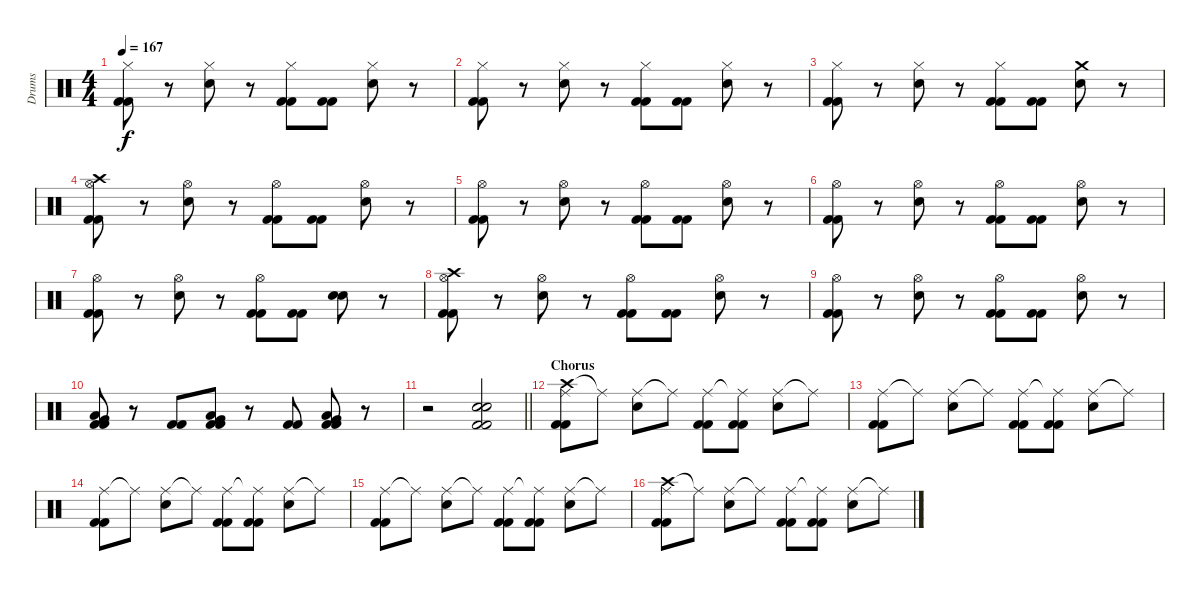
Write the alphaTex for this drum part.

\track ("Drums" "Drums") {instrument percussion}
\staff {score}
\articulation defaults
\ts (4 4)
\tempo 167
\clef neutral
\ks c
("Hi-Hat (closed)" "Kick (hit) 2" "Kick (hit) 2").8{dy f} r.8 ("Hi-Hat (closed)" "Electric Snare (hit)").8 r.8 ("Hi-Hat (closed)" "Kick (hit) 2" "Kick (hit) 2").8 ("Kick (hit) 2" "Kick (hit) 2").8 ("Hi-Hat (closed)" "Electric Snare (hit)").8 r.8 |
("Hi-Hat (closed)" "Kick (hit) 2" "Kick (hit) 2").8 r.8 ("Hi-Hat (closed)" "Electric Snare (hit)").8 r.8 ("Hi-Hat (closed)" "Kick (hit) 2" "Kick (hit) 2").8 ("Kick (hit) 2" "Kick (hit) 2").8 ("Hi-Hat (closed)" "Electric Snare (hit)").8 r.8 |
("Hi-Hat (closed)" "Kick (hit) 2" "Kick (hit) 2").8 r.8 ("Hi-Hat (closed)" "Electric Snare (hit)").8 r.8 ("Hi-Hat (closed)" "Kick (hit) 2" "Kick (hit) 2").8 ("Kick (hit) 2" "Kick (hit) 2").8 ("Crash medium (hit)" "Electric Snare (hit)").8 r.8 |
("Crash high (hit)" "Hi-Hat (open)" "Kick (hit) 2" "Kick (hit) 2").8 r.8 ("Hi-Hat (open)" "Electric Snare (hit)").8 r.8 ("Hi-Hat (open)" "Kick (hit) 2" "Kick (hit) 2").8 ("Kick (hit) 2" "Kick (hit) 2").8 ("Hi-Hat (open)" "Electric Snare (hit)").8 r.8 |
("Hi-Hat (open)" "Kick (hit) 2" "Kick (hit) 2").8 r.8 ("Hi-Hat (open)" "Electric Snare (hit)").8 r.8 ("Hi-Hat (open)" "Kick (hit) 2" "Kick (hit) 2").8 ("Kick (hit) 2" "Kick (hit) 2").8 ("Hi-Hat (open)" "Electric Snare (hit)").8 r.8 |
("Hi-Hat (open)" "Kick (hit) 2" "Kick (hit) 2").8 r.8 ("Hi-Hat (open)" "Electric Snare (hit)").8 r.8 ("Hi-Hat (open)" "Kick (hit) 2" "Kick (hit) 2").8 ("Kick (hit) 2" "Kick (hit) 2").8 ("Hi-Hat (open)" "Electric Snare (hit)").8 r.8 |
("Hi-Hat (open)" "Kick (hit) 2" "Kick (hit) 2").8 r.8 ("Hi-Hat (open)" "Electric Snare (hit)").8 r.8 ("Hi-Hat (open)" "Kick (hit) 2" "Kick (hit) 2").8 ("Kick (hit) 2" "Kick (hit) 2").8 ("Electric Snare (hit)" "Electric Snare (hit)").8{bd 120} r.8 |
("Crash high (hit)" "Hi-Hat (open)" "Kick (hit) 2" "Kick (hit) 2").8 r.8 ("Hi-Hat (open)" "Electric Snare (hit)").8 r.8 ("Hi-Hat (open)" "Kick (hit) 2" "Kick (hit) 2").8 ("Kick (hit) 2" "Kick (hit) 2").8 ("Hi-Hat (open)" "Electric Snare (hit)").8 r.8 |
("Hi-Hat (open)" "Kick (hit) 2" "Kick (hit) 2").8 r.8 ("Hi-Hat (open)" "Electric Snare (hit)").8 r.8 ("Hi-Hat (open)" "Kick (hit) 2" "Kick (hit) 2").8 ("Kick (hit) 2" "Kick (hit) 2").8 ("Hi-Hat (open)" "Electric Snare (hit)").8 r.8 |
("Low Floor Tom (hit)" "Very Low Tom (hit)" "Kick (hit) 2" "Kick (hit) 2").8 r.8 ("Kick (hit) 2" "Kick (hit) 2").8 ("Low Floor Tom (hit)" "Very Low Tom (hit)" "Kick (hit) 2" "Kick (hit) 2").8 r.8 ("Kick (hit) 2" "Kick (hit) 2").8 ("Low Floor Tom (hit)" "Very Low Tom (hit)" "Kick (hit) 2" "Kick (hit) 2").8 r.8 |
\barLineRight lightlight
r.2 ("Electric Snare (hit)" "Snare (hit) 2" "Kick (hit) 2" "Kick (hit) 2").2{volume 16} |
\section ("" "Chorus")
("Crash high (hit)" "Ride (middle)" "Kick (hit) 2" "Kick (hit) 2").8{volume 14} "Ride (middle)"{t}.8 ("Ride (middle)" "Electric Snare (hit)").8 "Ride (middle)"{t}.8 ("Ride (middle)" "Kick (hit) 2" "Kick (hit) 2").8 ("Ride (middle)"{t} "Kick (hit) 2" "Kick (hit) 2").8 ("Ride (middle)" "Electric Snare (hit)").8 "Ride (middle)"{t}.8 |
("Ride (middle)" "Kick (hit) 2" "Kick (hit) 2").8 "Ride (middle)"{t}.8 ("Ride (middle)" "Electric Snare (hit)").8 "Ride (middle)"{t}.8 ("Ride (middle)" "Kick (hit) 2" "Kick (hit) 2").8 ("Ride (middle)"{t} "Kick (hit) 2" "Kick (hit) 2").8 ("Ride (middle)" "Electric Snare (hit)").8 "Ride (middle)"{t}.8 |
("Ride (middle)" "Kick (hit) 2" "Kick (hit) 2").8 "Ride (middle)"{t}.8 ("Ride (middle)" "Electric Snare (hit)").8 "Ride (middle)"{t}.8 ("Ride (middle)" "Kick (hit) 2" "Kick (hit) 2").8 ("Ride (middle)"{t} "Kick (hit) 2" "Kick (hit) 2").8 ("Ride (middle)" "Electric Snare (hit)").8 "Ride (middle)"{t}.8 |
("Ride (middle)" "Kick (hit) 2" "Kick (hit) 2").8 "Ride (middle)"{t}.8 ("Ride (middle)" "Electric Snare (hit)").8 "Ride (middle)"{t}.8 ("Ride (middle)" "Kick (hit) 2" "Kick (hit) 2").8 ("Ride (middle)"{t} "Kick (hit) 2" "Kick (hit) 2").8 ("Ride (middle)" "Electric Snare (hit)").8 "Ride (middle)"{t}.8 |
("Crash high (hit)" "Ride (middle)" "Kick (hit) 2" "Kick (hit) 2").8 "Ride (middle)"{t}.8 ("Ride (middle)" "Electric Snare (hit)").8 "Ride (middle)"{t}.8 ("Ride (middle)" "Kick (hit) 2" "Kick (hit) 2").8 ("Ride (middle)"{t} "Kick (hit) 2" "Kick (hit) 2").8 ("Ride (middle)" "Electric Snare (hit)").8 "Ride (middle)"{t}.8
